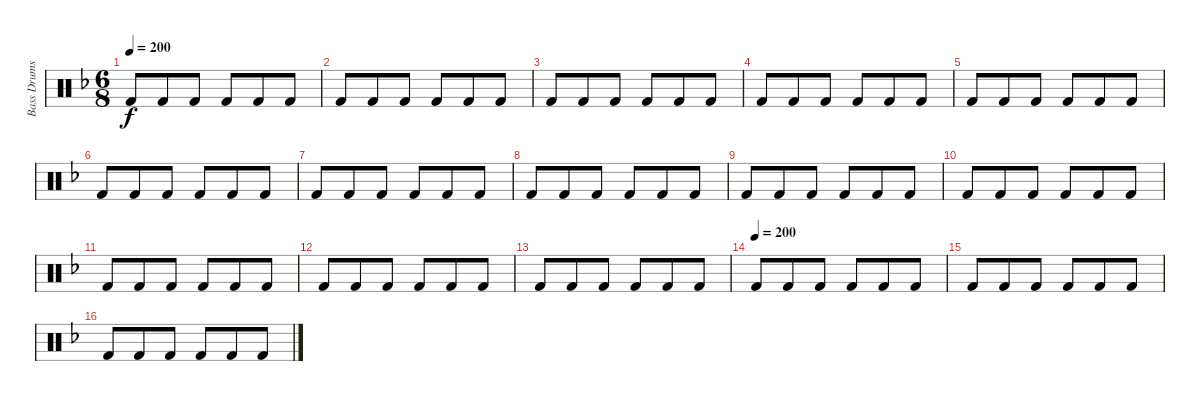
\track ("Bass Drums" "Bass Drums") {instrument percussion}
\staff {score}
\articulation defaults
\ts (6 8)
\tempo 200
\clef neutral
\ks dminor "Kick (hit) 2".8{dy f} "Kick (hit) 2".8 "Kick (hit) 2".8 "Kick (hit) 2".8 "Kick (hit) 2".8 "Kick (hit) 2".8
|
"Kick (hit) 2".8 "Kick (hit) 2".8 "Kick (hit) 2".8 "Kick (hit) 2".8 "Kick (hit) 2".8 "Kick (hit) 2".8 |
"Kick (hit) 2".8 "Kick (hit) 2".8 "Kick (hit) 2".8 "Kick (hit) 2".8 "Kick (hit) 2".8 "Kick (hit) 2".8 |
"Kick (hit) 2".8 "Kick (hit) 2".8 "Kick (hit) 2".8 "Kick (hit) 2".8 "Kick (hit) 2".8 "Kick (hit) 2".8 |
"Kick (hit) 2".8 "Kick (hit) 2".8 "Kick (hit) 2".8 "Kick (hit) 2".8 "Kick (hit) 2".8 "Kick (hit) 2".8 |
"Kick (hit) 2".8 "Kick (hit) 2".8 "Kick (hit) 2".8 "Kick (hit) 2".8 "Kick (hit) 2".8 "Kick (hit) 2".8 |
"Kick (hit) 2".8 "Kick (hit) 2".8 "Kick (hit) 2".8 "Kick (hit) 2".8 "Kick (hit) 2".8 "Kick (hit) 2".8 |
"Kick (hit) 2".8 "Kick (hit) 2".8 "Kick (hit) 2".8 "Kick (hit) 2".8 "Kick (hit) 2".8 "Kick (hit) 2".8 |
"Kick (hit) 2".8 "Kick (hit) 2".8 "Kick (hit) 2".8 "Kick (hit) 2".8 "Kick (hit) 2".8 "Kick (hit) 2".8 |
"Kick (hit) 2".8 "Kick (hit) 2".8 "Kick (hit) 2".8 "Kick (hit) 2".8 "Kick (hit) 2".8 "Kick (hit) 2".8 |
"Kick (hit) 2".8 "Kick (hit) 2".8 "Kick (hit) 2".8 "Kick (hit) 2".8 "Kick (hit) 2".8 "Kick (hit) 2".8 |
"Kick (hit) 2".8 "Kick (hit) 2".8 "Kick (hit) 2".8 "Kick (hit) 2".8 "Kick (hit) 2".8 "Kick (hit) 2".8 |
"Kick (hit) 2".8 "Kick (hit) 2".8 "Kick (hit) 2".8 "Kick (hit) 2".8 "Kick (hit) 2".8 "Kick (hit) 2".8 |
\tempo (200)
"Kick (hit) 2".8 "Kick (hit) 2".8 "Kick (hit) 2".8 "Kick (hit) 2".8 "Kick (hit) 2".8 "Kick (hit) 2".8 |
"Kick (hit) 2".8 "Kick (hit) 2".8 "Kick (hit) 2".8 "Kick (hit) 2".8 "Kick (hit) 2".8 "Kick (hit) 2".8 |
"Kick (hit) 2".8 "Kick (hit) 2".8 "Kick (hit) 2".8 "Kick (hit) 2".8 "Kick (hit) 2".8 "Kick (hit) 2".8
